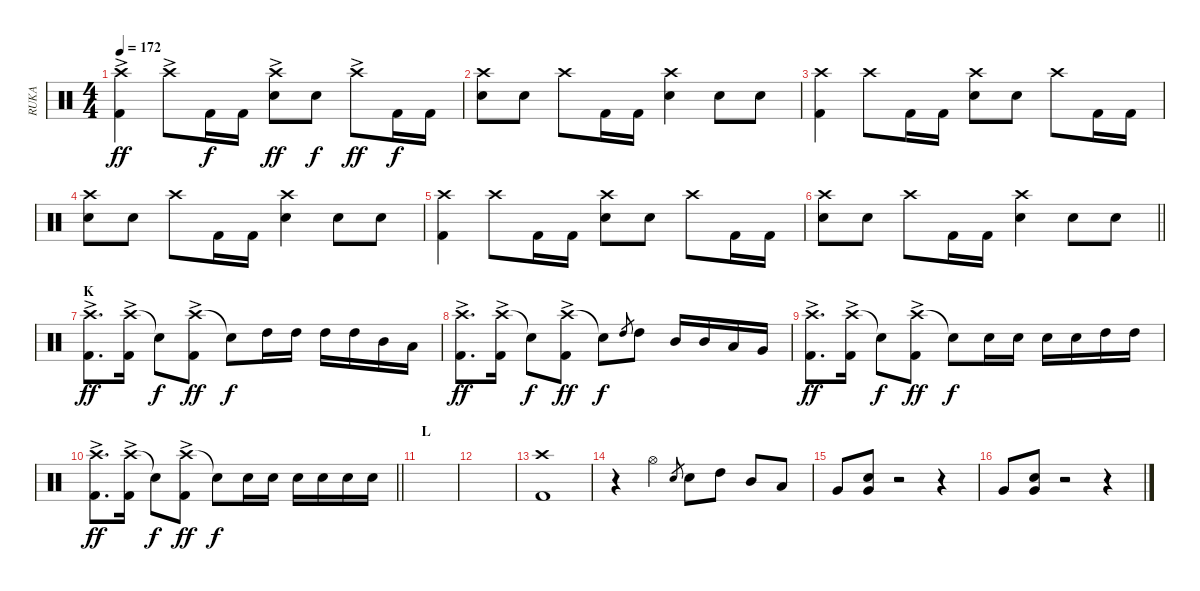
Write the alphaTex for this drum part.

\track ("RUKA" "RUKA") {instrument percussion}
\staff {score}
\articulation defaults
\ts (4 4)
\tempo 172
\clef neutral
\ks c
("Crash high (hit)"{ac} "Kick (hit) 2").4{dy ff} "Crash high (hit)"{ac}.8 "Kick (hit) 2".16{dy f} "Kick (hit) 2".16 ("Crash high (hit)"{ac} "Snare (hit) 2").8{dy ff} "Snare (hit) 2".8{dy f} "Crash high (hit)"{ac}.8{dy ff} "Kick (hit) 2".16{dy f} "Kick (hit) 2".16 |
("Crash high (hit)" "Snare (hit) 2").8 "Snare (hit) 2".8 "Crash high (hit)".8 "Kick (hit) 2".16 "Kick (hit) 2".16 ("Crash high (hit)" "Snare (hit) 2").4 "Snare (hit) 2".8 "Snare (hit) 2".8 |
("Crash high (hit)" "Kick (hit) 2").4 "Crash high (hit)".8 "Kick (hit) 2".16 "Kick (hit) 2".16 ("Crash high (hit)" "Snare (hit) 2").8 "Snare (hit) 2".8 "Crash high (hit)".8 "Kick (hit) 2".16 "Kick (hit) 2".16 |
("Crash high (hit)" "Snare (hit) 2").8 "Snare (hit) 2".8 "Crash high (hit)".8 "Kick (hit) 2".16 "Kick (hit) 2".16 ("Crash high (hit)" "Snare (hit) 2").4 "Snare (hit) 2".8 "Snare (hit) 2".8 |
("Crash high (hit)" "Kick (hit) 2").4 "Crash high (hit)".8 "Kick (hit) 2".16 "Kick (hit) 2".16 ("Crash high (hit)" "Snare (hit) 2").8 "Snare (hit) 2".8 "Crash high (hit)".8 "Kick (hit) 2".16 "Kick (hit) 2".16 |
\barLineRight lightlight
("Crash high (hit)" "Snare (hit) 2").8 "Snare (hit) 2".8 "Crash high (hit)".8 "Kick (hit) 2".16 "Kick (hit) 2".16 ("Crash high (hit)" "Snare (hit) 2").4 "Snare (hit) 2".8 "Snare (hit) 2".8 |
\section ("" "K")
("Crash high (hit)"{ac} "Kick (hit) 2").8{d dy ff} ("Crash high (hit)"{ac} "Kick (hit) 2").16 "Snare (hit)"{t}.8{dy f} ("Crash high (hit)"{ac} "Kick (hit) 2").8{dy ff} "Snare (hit)"{t}.8{dy f} "High Tom (hit)".16 "High Tom (hit)".16 "High Tom (hit)".16 "High Tom (hit)".16 "Mid Tom (hit)".16 "Low Tom (hit)".16 |
("Crash high (hit)"{ac} "Kick (hit) 2").8{d dy ff} ("Crash high (hit)"{ac} "Kick (hit) 2").16 "Snare (hit)"{t}.8{dy f} ("Crash high (hit)"{ac} "Kick (hit) 2").8{dy ff} "Snare (hit)"{t}.8{dy f} "High Tom (hit)"{sl}.8{gr} "High Tom (hit)".8 "Mid Tom (hit)".16 "Mid Tom (hit)".16 "Low Tom (hit)".16 "Very Low Tom (hit)".16 |
("Crash high (hit)"{ac} "Kick (hit) 2").8{d dy ff} ("Crash high (hit)"{ac} "Kick (hit) 2").16 "Snare (hit)"{t}.8{dy f} ("Crash high (hit)"{ac} "Kick (hit) 2").8{dy ff} "Snare (hit)"{t}.8{dy f} "Snare (hit) 2".16 "Snare (hit) 2".16 "Snare (hit) 2".16 "Snare (hit) 2".16 "High Tom (hit)".16 "High Tom (hit)".16 |
\barLineRight lightlight
("Crash high (hit)"{ac} "Kick (hit) 2").8{d dy ff} ("Crash high (hit)"{ac} "Kick (hit) 2").16 "Snare (hit)"{t}.8{dy f} ("Crash high (hit)"{ac} "Kick (hit) 2").8{dy ff} "Snare (hit)"{t}.8{dy f} "Snare (hit) 2".16 "Snare (hit) 2".16 "Snare (hit) 2".16 "Snare (hit) 2".16 "Snare (hit) 2".16 "Snare (hit) 2".16 |
\section ("" "L")
|
|
("Crash high (hit)" "Kick (hit) 2").1 |
r.4 "Hi-Hat (open)".4 "Snare (hit) 2".8{gr} "Snare (hit) 2".8 "High Tom (hit)".8 "Mid Tom (hit)".8 "Low Tom (hit)".8 |
"Very Low Tom (hit)".8 ("Very Low Tom (hit)" "Snare (hit) 2").8 r.2 r.4 |
"Very Low Tom (hit)".8 ("Very Low Tom (hit)" "Snare (hit) 2").8 r.2 r.4
